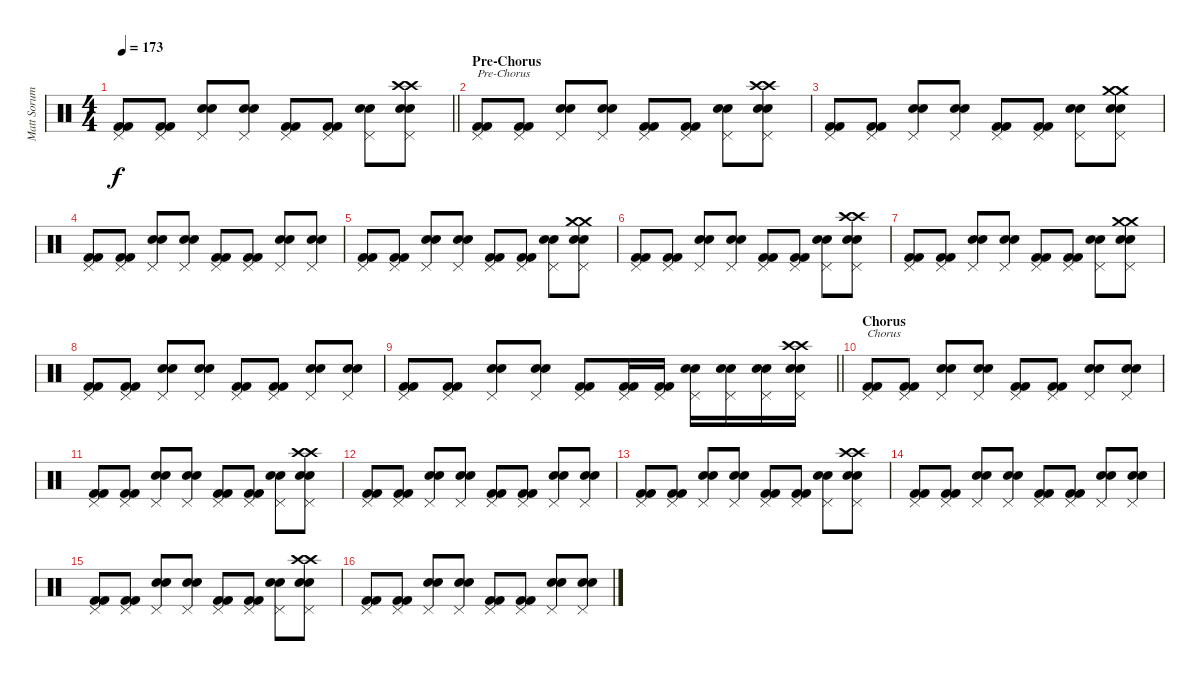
\track ("Matt Sorum" "Matt Sorum") {instrument percussion}
\staff {score}
\articulation defaults
\ts (4 4)
\tempo 173
\clef neutral
\barLineRight lightlight
\ks c
("Pedal Hi-Hat (hit)" "Kick (hit) 2" "Kick (hit) 2").8{dy f} ("Pedal Hi-Hat (hit)" "Kick (hit) 2" "Kick (hit) 2").8 ("Pedal Hi-Hat (hit)" "Snare (hit) 2" "Snare (hit) 2").8 ("Pedal Hi-Hat (hit)" "Snare (hit) 2" "Snare (hit) 2").8 ("Pedal Hi-Hat (hit)" "Kick (hit) 2" "Kick (hit) 2").8 ("Pedal Hi-Hat (hit)" "Kick (hit) 2" "Kick (hit) 2").8 ("Pedal Hi-Hat (hit)" "Snare (hit) 2" "Snare (hit) 2").8 ("Crash high (hit)" "Crash high (hit)" "Pedal Hi-Hat (hit)" "Snare (hit) 2" "Snare (hit) 2").8 |
\section ("" "Pre-Chorus")
("Pedal Hi-Hat (hit)" "Kick (hit) 2" "Kick (hit) 2").8{txt "Pre-Chorus"} ("Pedal Hi-Hat (hit)" "Kick (hit) 2" "Kick (hit) 2").8 ("Pedal Hi-Hat (hit)" "Snare (hit) 2" "Snare (hit) 2").8 ("Pedal Hi-Hat (hit)" "Snare (hit) 2" "Snare (hit) 2").8 ("Pedal Hi-Hat (hit)" "Kick (hit) 2" "Kick (hit) 2").8 ("Pedal Hi-Hat (hit)" "Kick (hit) 2" "Kick (hit) 2").8 ("Pedal Hi-Hat (hit)" "Snare (hit) 2" "Snare (hit) 2").8 ("Crash high (hit)" "Crash high (hit)" "Pedal Hi-Hat (hit)" "Snare (hit) 2" "Snare (hit) 2").8 |
("Pedal Hi-Hat (hit)" "Kick (hit) 2" "Kick (hit) 2").8 ("Pedal Hi-Hat (hit)" "Kick (hit) 2" "Kick (hit) 2").8 ("Pedal Hi-Hat (hit)" "Snare (hit) 2" "Snare (hit) 2").8 ("Pedal Hi-Hat (hit)" "Snare (hit) 2" "Snare (hit) 2").8 ("Pedal Hi-Hat (hit)" "Kick (hit) 2" "Kick (hit) 2").8 ("Pedal Hi-Hat (hit)" "Kick (hit) 2" "Kick (hit) 2").8 ("Pedal Hi-Hat (hit)" "Snare (hit) 2" "Snare (hit) 2").8 ("Crash medium (hit)" "Crash medium (hit)" "Pedal Hi-Hat (hit)" "Snare (hit) 2" "Snare (hit) 2").8 |
("Pedal Hi-Hat (hit)" "Kick (hit) 2" "Kick (hit) 2").8 ("Pedal Hi-Hat (hit)" "Kick (hit) 2" "Kick (hit) 2").8 ("Pedal Hi-Hat (hit)" "Snare (hit) 2" "Snare (hit) 2").8 ("Pedal Hi-Hat (hit)" "Snare (hit) 2" "Snare (hit) 2").8 ("Pedal Hi-Hat (hit)" "Kick (hit) 2" "Kick (hit) 2").8 ("Pedal Hi-Hat (hit)" "Kick (hit) 2" "Kick (hit) 2").8 ("Pedal Hi-Hat (hit)" "Snare (hit) 2" "Snare (hit) 2").8 ("Pedal Hi-Hat (hit)" "Snare (hit) 2" "Snare (hit) 2").8 |
("Pedal Hi-Hat (hit)" "Kick (hit) 2" "Kick (hit) 2").8 ("Pedal Hi-Hat (hit)" "Kick (hit) 2" "Kick (hit) 2").8 ("Pedal Hi-Hat (hit)" "Snare (hit) 2" "Snare (hit) 2").8 ("Pedal Hi-Hat (hit)" "Snare (hit) 2" "Snare (hit) 2").8 ("Pedal Hi-Hat (hit)" "Kick (hit) 2" "Kick (hit) 2").8 ("Pedal Hi-Hat (hit)" "Kick (hit) 2" "Kick (hit) 2").8 ("Pedal Hi-Hat (hit)" "Snare (hit) 2" "Snare (hit) 2").8 ("Crash medium (hit)" "Crash medium (hit)" "Pedal Hi-Hat (hit)" "Snare (hit) 2" "Snare (hit) 2").8 |
("Pedal Hi-Hat (hit)" "Kick (hit) 2" "Kick (hit) 2").8 ("Pedal Hi-Hat (hit)" "Kick (hit) 2" "Kick (hit) 2").8 ("Pedal Hi-Hat (hit)" "Snare (hit) 2" "Snare (hit) 2").8 ("Pedal Hi-Hat (hit)" "Snare (hit) 2" "Snare (hit) 2").8 ("Pedal Hi-Hat (hit)" "Kick (hit) 2" "Kick (hit) 2").8 ("Pedal Hi-Hat (hit)" "Kick (hit) 2" "Kick (hit) 2").8 ("Pedal Hi-Hat (hit)" "Snare (hit) 2" "Snare (hit) 2").8 ("Crash high (hit)" "Crash high (hit)" "Pedal Hi-Hat (hit)" "Snare (hit) 2" "Snare (hit) 2").8 |
("Pedal Hi-Hat (hit)" "Kick (hit) 2" "Kick (hit) 2").8 ("Pedal Hi-Hat (hit)" "Kick (hit) 2" "Kick (hit) 2").8 ("Pedal Hi-Hat (hit)" "Snare (hit) 2" "Snare (hit) 2").8 ("Pedal Hi-Hat (hit)" "Snare (hit) 2" "Snare (hit) 2").8 ("Pedal Hi-Hat (hit)" "Kick (hit) 2" "Kick (hit) 2").8 ("Pedal Hi-Hat (hit)" "Kick (hit) 2" "Kick (hit) 2").8 ("Pedal Hi-Hat (hit)" "Snare (hit) 2" "Snare (hit) 2").8 ("Crash medium (hit)" "Crash medium (hit)" "Pedal Hi-Hat (hit)" "Snare (hit) 2" "Snare (hit) 2").8 |
("Pedal Hi-Hat (hit)" "Kick (hit) 2" "Kick (hit) 2").8 ("Pedal Hi-Hat (hit)" "Kick (hit) 2" "Kick (hit) 2").8 ("Pedal Hi-Hat (hit)" "Snare (hit) 2" "Snare (hit) 2").8 ("Pedal Hi-Hat (hit)" "Snare (hit) 2" "Snare (hit) 2").8 ("Pedal Hi-Hat (hit)" "Kick (hit) 2" "Kick (hit) 2").8 ("Pedal Hi-Hat (hit)" "Kick (hit) 2" "Kick (hit) 2").8 ("Pedal Hi-Hat (hit)" "Snare (hit) 2" "Snare (hit) 2").8 ("Pedal Hi-Hat (hit)" "Snare (hit) 2" "Snare (hit) 2").8 |
\barLineRight lightlight
("Pedal Hi-Hat (hit)" "Kick (hit) 2" "Kick (hit) 2").8 ("Pedal Hi-Hat (hit)" "Kick (hit) 2" "Kick (hit) 2").8 ("Pedal Hi-Hat (hit)" "Snare (hit) 2" "Snare (hit) 2").8 ("Pedal Hi-Hat (hit)" "Snare (hit) 2" "Snare (hit) 2").8 ("Pedal Hi-Hat (hit)" "Kick (hit) 2" "Kick (hit) 2").8 ("Pedal Hi-Hat (hit)" "Kick (hit) 2" "Kick (hit) 2").16 ("Pedal Hi-Hat (hit)" "Kick (hit) 2" "Kick (hit) 2").16 ("Pedal Hi-Hat (hit)" "Snare (hit) 2" "Snare (hit) 2").16 ("Pedal Hi-Hat (hit)" "Snare (hit) 2" "Snare (hit) 2").16 ("Pedal Hi-Hat (hit)" "Snare (hit) 2" "Snare (hit) 2").16 ("Crash high (hit)" "Crash high (hit)" "Pedal Hi-Hat (hit)" "Snare (hit) 2" "Snare (hit) 2").16 |
\section ("" "Chorus")
("Pedal Hi-Hat (hit)" "Kick (hit) 2" "Kick (hit) 2").8{txt "Chorus"} ("Pedal Hi-Hat (hit)" "Kick (hit) 2" "Kick (hit) 2").8 ("Pedal Hi-Hat (hit)" "Snare (hit) 2" "Snare (hit) 2").8 ("Pedal Hi-Hat (hit)" "Snare (hit) 2" "Snare (hit) 2").8 ("Pedal Hi-Hat (hit)" "Kick (hit) 2" "Kick (hit) 2").8 ("Pedal Hi-Hat (hit)" "Kick (hit) 2" "Kick (hit) 2").8 ("Pedal Hi-Hat (hit)" "Snare (hit) 2" "Snare (hit) 2").8 ("Pedal Hi-Hat (hit)" "Snare (hit) 2" "Snare (hit) 2").8 |
("Pedal Hi-Hat (hit)" "Kick (hit) 2" "Kick (hit) 2").8 ("Pedal Hi-Hat (hit)" "Kick (hit) 2" "Kick (hit) 2").8 ("Pedal Hi-Hat (hit)" "Snare (hit) 2" "Snare (hit) 2").8 ("Pedal Hi-Hat (hit)" "Snare (hit) 2" "Snare (hit) 2").8 ("Pedal Hi-Hat (hit)" "Kick (hit) 2" "Kick (hit) 2").8 ("Pedal Hi-Hat (hit)" "Kick (hit) 2" "Kick (hit) 2").8 ("Pedal Hi-Hat (hit)" "Snare (hit) 2" "Snare (hit) 2").8 ("Crash high (hit)" "Crash high (hit)" "Pedal Hi-Hat (hit)" "Snare (hit) 2" "Snare (hit) 2").8 |
("Pedal Hi-Hat (hit)" "Kick (hit) 2" "Kick (hit) 2").8 ("Pedal Hi-Hat (hit)" "Kick (hit) 2" "Kick (hit) 2").8 ("Pedal Hi-Hat (hit)" "Snare (hit) 2" "Snare (hit) 2").8 ("Pedal Hi-Hat (hit)" "Snare (hit) 2" "Snare (hit) 2").8 ("Pedal Hi-Hat (hit)" "Kick (hit) 2" "Kick (hit) 2").8 ("Pedal Hi-Hat (hit)" "Kick (hit) 2" "Kick (hit) 2").8 ("Pedal Hi-Hat (hit)" "Snare (hit) 2" "Snare (hit) 2").8 ("Pedal Hi-Hat (hit)" "Snare (hit) 2" "Snare (hit) 2").8 |
("Pedal Hi-Hat (hit)" "Kick (hit) 2" "Kick (hit) 2").8 ("Pedal Hi-Hat (hit)" "Kick (hit) 2" "Kick (hit) 2").8 ("Pedal Hi-Hat (hit)" "Snare (hit) 2" "Snare (hit) 2").8 ("Pedal Hi-Hat (hit)" "Snare (hit) 2" "Snare (hit) 2").8 ("Pedal Hi-Hat (hit)" "Kick (hit) 2" "Kick (hit) 2").8 ("Pedal Hi-Hat (hit)" "Kick (hit) 2" "Kick (hit) 2").8 ("Pedal Hi-Hat (hit)" "Snare (hit) 2" "Snare (hit) 2").8 ("Crash high (hit)" "Crash high (hit)" "Pedal Hi-Hat (hit)" "Snare (hit) 2" "Snare (hit) 2").8 |
("Pedal Hi-Hat (hit)" "Kick (hit) 2" "Kick (hit) 2").8 ("Pedal Hi-Hat (hit)" "Kick (hit) 2" "Kick (hit) 2").8 ("Pedal Hi-Hat (hit)" "Snare (hit) 2" "Snare (hit) 2").8 ("Pedal Hi-Hat (hit)" "Snare (hit) 2" "Snare (hit) 2").8 ("Pedal Hi-Hat (hit)" "Kick (hit) 2" "Kick (hit) 2").8 ("Pedal Hi-Hat (hit)" "Kick (hit) 2" "Kick (hit) 2").8 ("Pedal Hi-Hat (hit)" "Snare (hit) 2" "Snare (hit) 2").8 ("Pedal Hi-Hat (hit)" "Snare (hit) 2" "Snare (hit) 2").8 |
("Pedal Hi-Hat (hit)" "Kick (hit) 2" "Kick (hit) 2").8 ("Pedal Hi-Hat (hit)" "Kick (hit) 2" "Kick (hit) 2").8 ("Pedal Hi-Hat (hit)" "Snare (hit) 2" "Snare (hit) 2").8 ("Pedal Hi-Hat (hit)" "Snare (hit) 2" "Snare (hit) 2").8 ("Pedal Hi-Hat (hit)" "Kick (hit) 2" "Kick (hit) 2").8 ("Pedal Hi-Hat (hit)" "Kick (hit) 2" "Kick (hit) 2").8 ("Pedal Hi-Hat (hit)" "Snare (hit) 2" "Snare (hit) 2").8 ("Crash high (hit)" "Crash high (hit)" "Pedal Hi-Hat (hit)" "Snare (hit) 2" "Snare (hit) 2").8 |
("Pedal Hi-Hat (hit)" "Kick (hit) 2" "Kick (hit) 2").8 ("Pedal Hi-Hat (hit)" "Kick (hit) 2" "Kick (hit) 2").8 ("Pedal Hi-Hat (hit)" "Snare (hit) 2" "Snare (hit) 2").8 ("Pedal Hi-Hat (hit)" "Snare (hit) 2" "Snare (hit) 2").8 ("Pedal Hi-Hat (hit)" "Kick (hit) 2" "Kick (hit) 2").8 ("Pedal Hi-Hat (hit)" "Kick (hit) 2" "Kick (hit) 2").8 ("Pedal Hi-Hat (hit)" "Snare (hit) 2" "Snare (hit) 2").8 ("Pedal Hi-Hat (hit)" "Snare (hit) 2" "Snare (hit) 2").8
